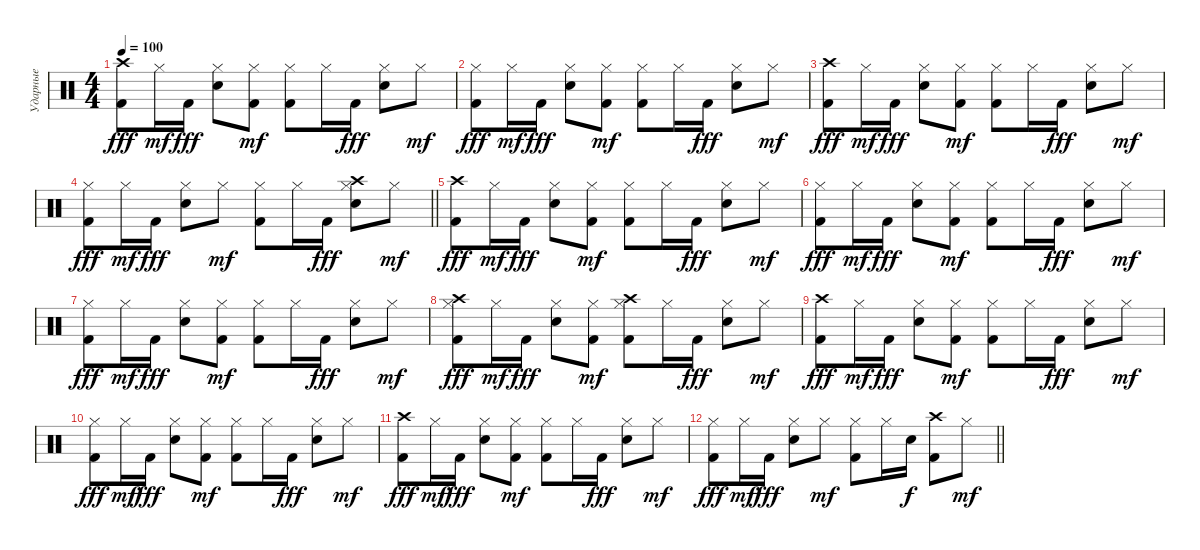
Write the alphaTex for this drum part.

\track ("Ударные" "Ударные") {instrument percussion}
\staff {score}
\articulation defaults
\ts (4 4)
\tempo 100
\clef neutral
\ks c
("Kick (hit) 2" "Crash high (hit)").8{dy fff} "Hi-Hat (closed)".16{dy mf} "Kick (hit) 2".16{dy fff} ("Hi-Hat (closed)" "Electric Snare (hit)").8 ("Kick (hit) 2" "Hi-Hat (closed)").8{dy mf} ("Kick (hit) 2" "Hi-Hat (closed)").8 "Hi-Hat (closed)".16 "Kick (hit) 2".16{dy fff} ("Hi-Hat (closed)" "Electric Snare (hit)").8 "Hi-Hat (closed)".8{dy mf} |
("Kick (hit) 2" "Hi-Hat (closed)").8{dy fff} "Hi-Hat (closed)".16{dy mf} "Kick (hit) 2".16{dy fff} ("Hi-Hat (closed)" "Electric Snare (hit)").8 ("Kick (hit) 2" "Hi-Hat (closed)").8{dy mf} ("Kick (hit) 2" "Hi-Hat (closed)").8 "Hi-Hat (closed)".16 "Kick (hit) 2".16{dy fff} ("Hi-Hat (closed)" "Electric Snare (hit)").8 "Hi-Hat (closed)".8{dy mf} |
("Kick (hit) 2" "Crash high (hit)").8{dy fff} "Hi-Hat (closed)".16{dy mf} "Kick (hit) 2".16{dy fff} ("Hi-Hat (closed)" "Electric Snare (hit)").8 ("Kick (hit) 2" "Hi-Hat (closed)").8{dy mf} ("Kick (hit) 2" "Hi-Hat (closed)").8 "Hi-Hat (closed)".16 "Kick (hit) 2".16{dy fff} ("Hi-Hat (closed)" "Electric Snare (hit)").8 "Hi-Hat (closed)".8{dy mf} |
\barLineRight lightlight
("Kick (hit) 2" "Hi-Hat (closed)").8{dy fff} "Hi-Hat (closed)".16{dy mf} "Kick (hit) 2".16{dy fff} ("Hi-Hat (closed)" "Electric Snare (hit)").8 "Hi-Hat (closed)".8{dy mf} ("Kick (hit) 2" "Hi-Hat (closed)").8 "Hi-Hat (closed)".16 "Kick (hit) 2".16{dy fff} ("Crash high (hit)" "Hi-Hat (closed)" "Electric Snare (hit)").8 "Hi-Hat (closed)".8{dy mf} |
("Kick (hit) 2" "Crash high (hit)").8{dy fff} "Hi-Hat (closed)".16{dy mf} "Kick (hit) 2".16{dy fff} ("Hi-Hat (closed)" "Electric Snare (hit)").8 ("Kick (hit) 2" "Hi-Hat (closed)").8{dy mf} ("Kick (hit) 2" "Hi-Hat (closed)").8 "Hi-Hat (closed)".16 "Kick (hit) 2".16{dy fff} ("Hi-Hat (closed)" "Electric Snare (hit)").8 "Hi-Hat (closed)".8{dy mf} |
("Kick (hit) 2" "Hi-Hat (closed)").8{dy fff} "Hi-Hat (closed)".16{dy mf} "Kick (hit) 2".16{dy fff} ("Hi-Hat (closed)" "Electric Snare (hit)").8 ("Kick (hit) 2" "Hi-Hat (closed)").8{dy mf} ("Kick (hit) 2" "Hi-Hat (closed)").8 "Hi-Hat (closed)".16 "Kick (hit) 2".16{dy fff} ("Hi-Hat (closed)" "Electric Snare (hit)").8 "Hi-Hat (closed)".8{dy mf} |
("Kick (hit) 2" "Hi-Hat (closed)").8{dy fff} "Hi-Hat (closed)".16{dy mf} "Kick (hit) 2".16{dy fff} ("Hi-Hat (closed)" "Electric Snare (hit)").8 ("Kick (hit) 2" "Hi-Hat (closed)").8{dy mf} ("Kick (hit) 2" "Hi-Hat (closed)").8 "Hi-Hat (closed)".16 "Kick (hit) 2".16{dy fff} ("Hi-Hat (closed)" "Electric Snare (hit)").8 "Hi-Hat (closed)".8{dy mf} |
("Kick (hit) 2" "Crash high (hit)" "Hi-Hat (closed)").8{dy fff} "Hi-Hat (closed)".16{dy mf} "Kick (hit) 2".16{dy fff} ("Hi-Hat (closed)" "Electric Snare (hit)").8 ("Kick (hit) 2" "Hi-Hat (closed)").8{dy mf} ("Kick (hit) 2" "Crash high (hit)" "Hi-Hat (closed)").8 "Hi-Hat (closed)".16 "Kick (hit) 2".16{dy fff} ("Hi-Hat (closed)" "Electric Snare (hit)").8 "Hi-Hat (closed)".8{dy mf} |
("Kick (hit) 2" "Crash high (hit)").8{dy fff} "Hi-Hat (closed)".16{dy mf} "Kick (hit) 2".16{dy fff} ("Hi-Hat (closed)" "Electric Snare (hit)").8 ("Kick (hit) 2" "Hi-Hat (closed)").8{dy mf} ("Kick (hit) 2" "Hi-Hat (closed)").8 "Hi-Hat (closed)".16 "Kick (hit) 2".16{dy fff} ("Hi-Hat (closed)" "Electric Snare (hit)").8 "Hi-Hat (closed)".8{dy mf} |
("Kick (hit) 2" "Hi-Hat (closed)").8{dy fff} "Hi-Hat (closed)".16{dy mf} "Kick (hit) 2".16{dy fff} ("Hi-Hat (closed)" "Electric Snare (hit)").8 ("Kick (hit) 2" "Hi-Hat (closed)").8{dy mf} ("Kick (hit) 2" "Hi-Hat (closed)").8 "Hi-Hat (closed)".16 "Kick (hit) 2".16{dy fff} ("Hi-Hat (closed)" "Electric Snare (hit)").8 "Hi-Hat (closed)".8{dy mf} |
("Kick (hit) 2" "Crash high (hit)").8{dy fff} "Hi-Hat (closed)".16{dy mf} "Kick (hit) 2".16{dy fff} ("Hi-Hat (closed)" "Electric Snare (hit)").8 ("Kick (hit) 2" "Hi-Hat (closed)").8{dy mf} ("Kick (hit) 2" "Hi-Hat (closed)").8 "Hi-Hat (closed)".16 "Kick (hit) 2".16{dy fff} ("Hi-Hat (closed)" "Electric Snare (hit)").8 "Hi-Hat (closed)".8{dy mf} |
\barLineRight lightlight
("Kick (hit) 2" "Hi-Hat (closed)").8{dy fff} "Hi-Hat (closed)".16{dy mf} "Kick (hit) 2".16{dy fff} ("Hi-Hat (closed)" "Electric Snare (hit)").8 "Hi-Hat (closed)".8{dy mf} ("Kick (hit) 2" "Hi-Hat (closed)").8 "Hi-Hat (closed)".16 "Electric Snare (hit)".16{dy f} ("Crash high (hit)" "Kick (hit) 2").8 "Hi-Hat (closed)".8{dy mf}
